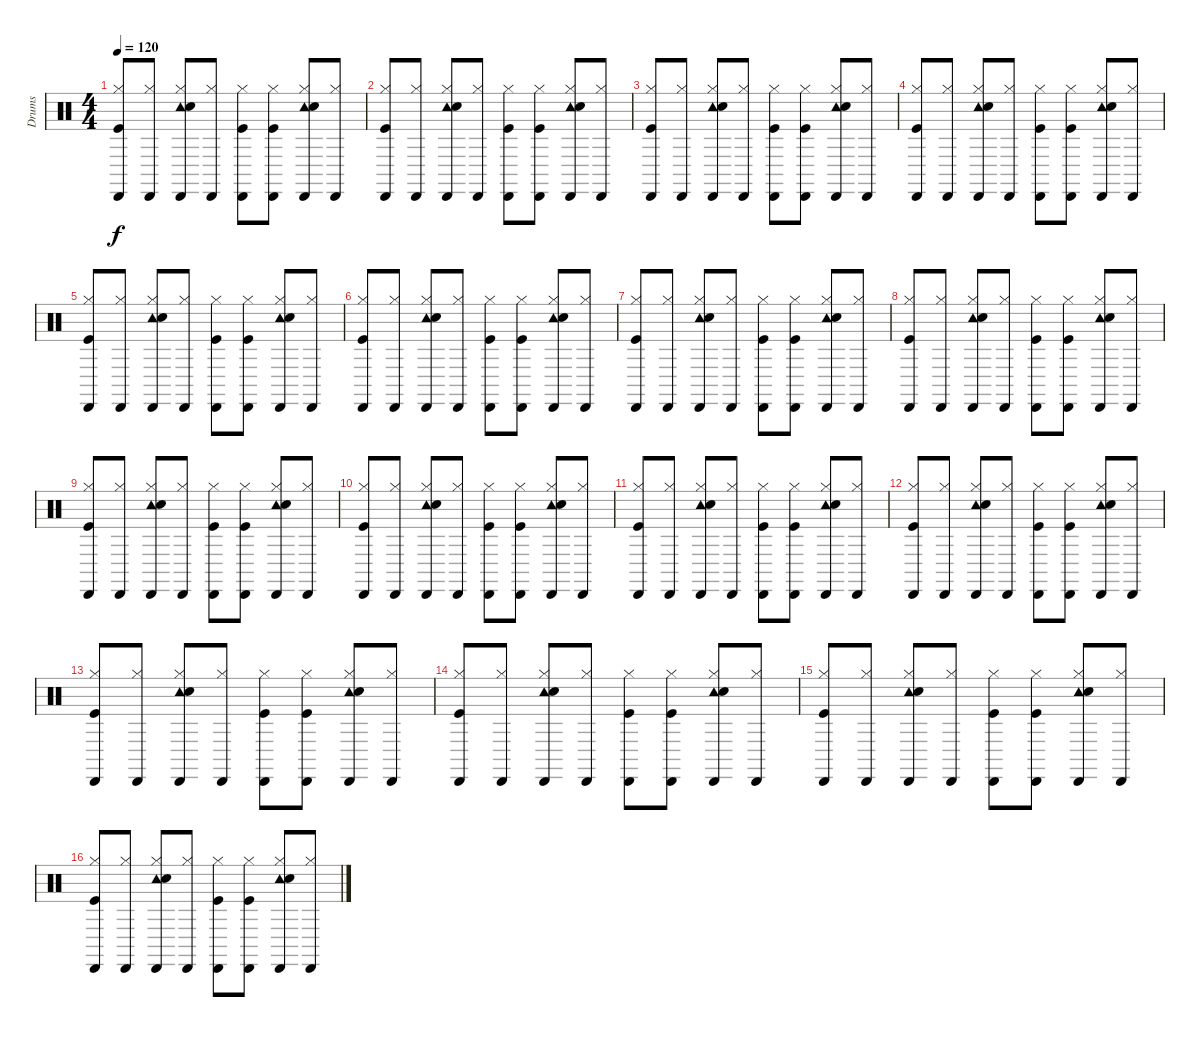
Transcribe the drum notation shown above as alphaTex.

\track ("Drums" "Drums") {instrument percussion}
\staff {score}
\articulation defaults
\ts (4 4)
\tempo 120
\clef neutral
\ks c
("Hi-Hat (closed)" "Cabasa (hit)" "Kick (hit)").8{dy f} ("Hi-Hat (closed)" "Cabasa (hit)").8 ("Hi-Hat (closed)" "Tambourine (hit)" "Cabasa (hit)" "Snare (hit) 2").8 ("Hi-Hat (closed)" "Cabasa (hit)").8 ("Hi-Hat (closed)" "Cabasa (hit)" "Kick (hit)").8 ("Hi-Hat (closed)" "Cabasa (hit)" "Kick (hit)").8 ("Hi-Hat (closed)" "Tambourine (hit)" "Cabasa (hit)" "Snare (hit) 2").8 ("Hi-Hat (closed)" "Cabasa (hit)").8 |
("Hi-Hat (closed)" "Cabasa (hit)" "Kick (hit)").8 ("Hi-Hat (closed)" "Cabasa (hit)").8 ("Hi-Hat (closed)" "Tambourine (hit)" "Cabasa (hit)" "Snare (hit) 2").8 ("Hi-Hat (closed)" "Cabasa (hit)").8 ("Hi-Hat (closed)" "Cabasa (hit)" "Kick (hit)").8 ("Hi-Hat (closed)" "Cabasa (hit)" "Kick (hit)").8 ("Hi-Hat (closed)" "Tambourine (hit)" "Cabasa (hit)" "Snare (hit) 2").8 ("Hi-Hat (closed)" "Cabasa (hit)").8 |
("Hi-Hat (closed)" "Cabasa (hit)" "Kick (hit)").8 ("Hi-Hat (closed)" "Cabasa (hit)").8 ("Hi-Hat (closed)" "Tambourine (hit)" "Cabasa (hit)" "Snare (hit) 2").8 ("Hi-Hat (closed)" "Cabasa (hit)").8 ("Hi-Hat (closed)" "Cabasa (hit)" "Kick (hit)").8 ("Hi-Hat (closed)" "Cabasa (hit)" "Kick (hit)").8 ("Hi-Hat (closed)" "Tambourine (hit)" "Cabasa (hit)" "Snare (hit) 2").8 ("Hi-Hat (closed)" "Cabasa (hit)").8 |
("Hi-Hat (closed)" "Cabasa (hit)" "Kick (hit)").8 ("Hi-Hat (closed)" "Cabasa (hit)").8 ("Hi-Hat (closed)" "Tambourine (hit)" "Cabasa (hit)" "Snare (hit) 2").8 ("Hi-Hat (closed)" "Cabasa (hit)").8 ("Hi-Hat (closed)" "Cabasa (hit)" "Kick (hit)").8 ("Hi-Hat (closed)" "Cabasa (hit)" "Kick (hit)").8 ("Hi-Hat (closed)" "Tambourine (hit)" "Cabasa (hit)" "Snare (hit) 2").8 ("Hi-Hat (closed)" "Cabasa (hit)").8 |
("Hi-Hat (closed)" "Cabasa (hit)" "Kick (hit)").8 ("Hi-Hat (closed)" "Cabasa (hit)").8 ("Hi-Hat (closed)" "Tambourine (hit)" "Cabasa (hit)" "Snare (hit) 2").8 ("Hi-Hat (closed)" "Cabasa (hit)").8 ("Hi-Hat (closed)" "Cabasa (hit)" "Kick (hit)").8 ("Hi-Hat (closed)" "Cabasa (hit)" "Kick (hit)").8 ("Hi-Hat (closed)" "Tambourine (hit)" "Cabasa (hit)" "Snare (hit) 2").8 ("Hi-Hat (closed)" "Cabasa (hit)").8 |
("Hi-Hat (closed)" "Cabasa (hit)" "Kick (hit)").8 ("Hi-Hat (closed)" "Cabasa (hit)").8 ("Hi-Hat (closed)" "Tambourine (hit)" "Cabasa (hit)" "Snare (hit) 2").8 ("Hi-Hat (closed)" "Cabasa (hit)").8 ("Hi-Hat (closed)" "Cabasa (hit)" "Kick (hit)").8 ("Hi-Hat (closed)" "Cabasa (hit)" "Kick (hit)").8 ("Hi-Hat (closed)" "Tambourine (hit)" "Cabasa (hit)" "Snare (hit) 2").8 ("Hi-Hat (closed)" "Cabasa (hit)").8 |
("Hi-Hat (closed)" "Cabasa (hit)" "Kick (hit)").8 ("Hi-Hat (closed)" "Cabasa (hit)").8 ("Hi-Hat (closed)" "Tambourine (hit)" "Cabasa (hit)" "Snare (hit) 2").8 ("Hi-Hat (closed)" "Cabasa (hit)").8 ("Hi-Hat (closed)" "Cabasa (hit)" "Kick (hit)").8 ("Hi-Hat (closed)" "Cabasa (hit)" "Kick (hit)").8 ("Hi-Hat (closed)" "Tambourine (hit)" "Cabasa (hit)" "Snare (hit) 2").8 ("Hi-Hat (closed)" "Cabasa (hit)").8 |
("Hi-Hat (closed)" "Cabasa (hit)" "Kick (hit)").8 ("Hi-Hat (closed)" "Cabasa (hit)").8 ("Hi-Hat (closed)" "Tambourine (hit)" "Cabasa (hit)" "Snare (hit) 2").8 ("Hi-Hat (closed)" "Cabasa (hit)").8 ("Hi-Hat (closed)" "Cabasa (hit)" "Kick (hit)").8 ("Hi-Hat (closed)" "Cabasa (hit)" "Kick (hit)").8 ("Hi-Hat (closed)" "Tambourine (hit)" "Cabasa (hit)" "Snare (hit) 2").8 ("Hi-Hat (closed)" "Cabasa (hit)").8 |
("Hi-Hat (closed)" "Cabasa (hit)" "Kick (hit)").8 ("Hi-Hat (closed)" "Cabasa (hit)").8 ("Hi-Hat (closed)" "Tambourine (hit)" "Cabasa (hit)" "Snare (hit) 2").8 ("Hi-Hat (closed)" "Cabasa (hit)").8 ("Hi-Hat (closed)" "Cabasa (hit)" "Kick (hit)").8 ("Hi-Hat (closed)" "Cabasa (hit)" "Kick (hit)").8 ("Hi-Hat (closed)" "Tambourine (hit)" "Cabasa (hit)" "Snare (hit) 2").8 ("Hi-Hat (closed)" "Cabasa (hit)").8 |
("Hi-Hat (closed)" "Cabasa (hit)" "Kick (hit)").8 ("Hi-Hat (closed)" "Cabasa (hit)").8 ("Hi-Hat (closed)" "Tambourine (hit)" "Cabasa (hit)" "Snare (hit) 2").8 ("Hi-Hat (closed)" "Cabasa (hit)").8 ("Hi-Hat (closed)" "Cabasa (hit)" "Kick (hit)").8 ("Hi-Hat (closed)" "Cabasa (hit)" "Kick (hit)").8 ("Hi-Hat (closed)" "Tambourine (hit)" "Cabasa (hit)" "Snare (hit) 2").8 ("Hi-Hat (closed)" "Cabasa (hit)").8 |
("Hi-Hat (closed)" "Cabasa (hit)" "Kick (hit)").8 ("Hi-Hat (closed)" "Cabasa (hit)").8 ("Hi-Hat (closed)" "Tambourine (hit)" "Cabasa (hit)" "Snare (hit) 2").8 ("Hi-Hat (closed)" "Cabasa (hit)").8 ("Hi-Hat (closed)" "Cabasa (hit)" "Kick (hit)").8 ("Hi-Hat (closed)" "Cabasa (hit)" "Kick (hit)").8 ("Hi-Hat (closed)" "Tambourine (hit)" "Cabasa (hit)" "Snare (hit) 2").8 ("Hi-Hat (closed)" "Cabasa (hit)").8 |
("Hi-Hat (closed)" "Cabasa (hit)" "Kick (hit)").8 ("Hi-Hat (closed)" "Cabasa (hit)").8 ("Hi-Hat (closed)" "Tambourine (hit)" "Cabasa (hit)" "Snare (hit) 2").8 ("Hi-Hat (closed)" "Cabasa (hit)").8 ("Hi-Hat (closed)" "Cabasa (hit)" "Kick (hit)").8 ("Hi-Hat (closed)" "Cabasa (hit)" "Kick (hit)").8 ("Hi-Hat (closed)" "Tambourine (hit)" "Cabasa (hit)" "Snare (hit) 2").8 ("Hi-Hat (closed)" "Cabasa (hit)").8 |
("Hi-Hat (closed)" "Cabasa (hit)" "Kick (hit)").8 ("Hi-Hat (closed)" "Cabasa (hit)").8 ("Hi-Hat (closed)" "Tambourine (hit)" "Cabasa (hit)" "Snare (hit) 2").8 ("Hi-Hat (closed)" "Cabasa (hit)").8 ("Hi-Hat (closed)" "Cabasa (hit)" "Kick (hit)").8 ("Hi-Hat (closed)" "Cabasa (hit)" "Kick (hit)").8 ("Hi-Hat (closed)" "Tambourine (hit)" "Cabasa (hit)" "Snare (hit) 2").8 ("Hi-Hat (closed)" "Cabasa (hit)").8 |
("Hi-Hat (closed)" "Cabasa (hit)" "Kick (hit)").8 ("Hi-Hat (closed)" "Cabasa (hit)").8 ("Hi-Hat (closed)" "Tambourine (hit)" "Cabasa (hit)" "Snare (hit) 2").8 ("Hi-Hat (closed)" "Cabasa (hit)").8 ("Hi-Hat (closed)" "Cabasa (hit)" "Kick (hit)").8 ("Hi-Hat (closed)" "Cabasa (hit)" "Kick (hit)").8 ("Hi-Hat (closed)" "Tambourine (hit)" "Cabasa (hit)" "Snare (hit) 2").8 ("Hi-Hat (closed)" "Cabasa (hit)").8 |
("Hi-Hat (closed)" "Cabasa (hit)" "Kick (hit)").8 ("Hi-Hat (closed)" "Cabasa (hit)").8 ("Hi-Hat (closed)" "Tambourine (hit)" "Cabasa (hit)" "Snare (hit) 2").8 ("Hi-Hat (closed)" "Cabasa (hit)").8 ("Hi-Hat (closed)" "Cabasa (hit)" "Kick (hit)").8 ("Hi-Hat (closed)" "Cabasa (hit)" "Kick (hit)").8 ("Hi-Hat (closed)" "Tambourine (hit)" "Cabasa (hit)" "Snare (hit) 2").8 ("Hi-Hat (closed)" "Cabasa (hit)").8 |
("Hi-Hat (closed)" "Cabasa (hit)" "Kick (hit)").8 ("Hi-Hat (closed)" "Cabasa (hit)").8 ("Hi-Hat (closed)" "Tambourine (hit)" "Cabasa (hit)" "Snare (hit) 2").8 ("Hi-Hat (closed)" "Cabasa (hit)").8 ("Hi-Hat (closed)" "Cabasa (hit)" "Kick (hit)").8 ("Hi-Hat (closed)" "Cabasa (hit)" "Kick (hit)").8 ("Hi-Hat (closed)" "Tambourine (hit)" "Cabasa (hit)" "Snare (hit) 2").8 ("Hi-Hat (closed)" "Cabasa (hit)").8
